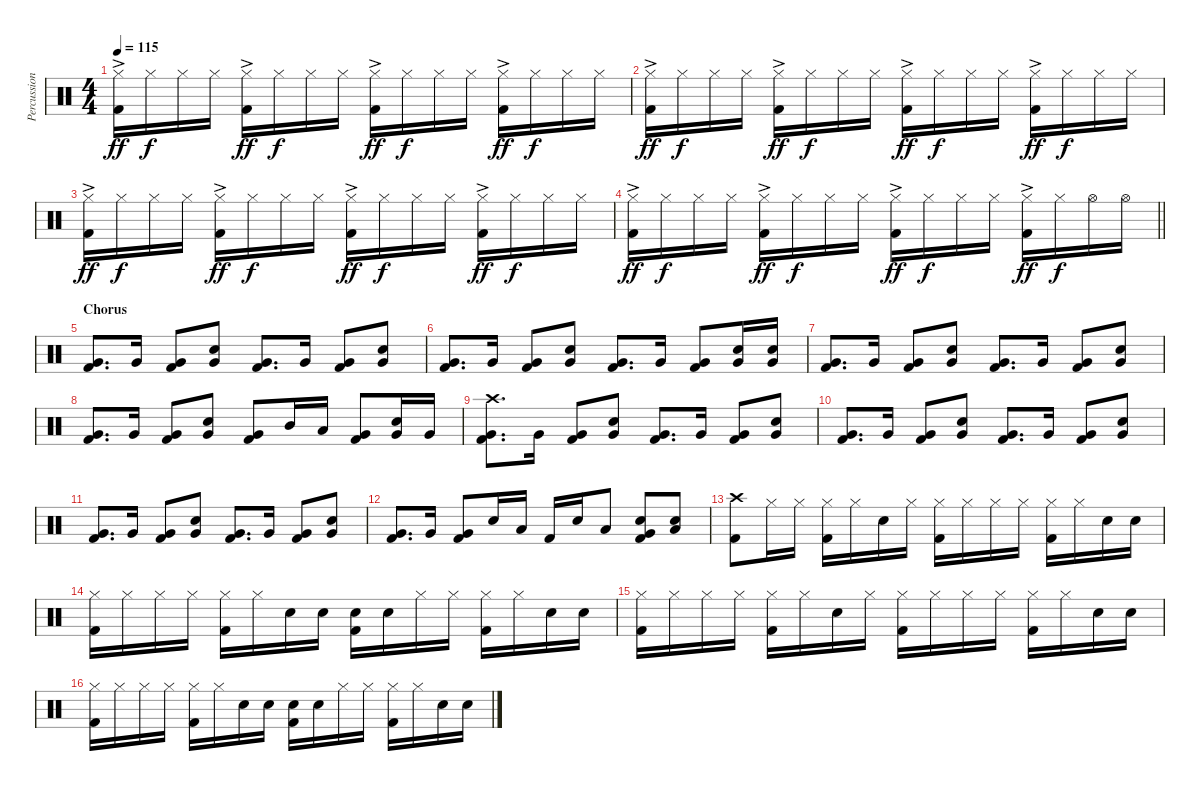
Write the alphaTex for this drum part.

\track ("Percussion" "Percussion") {instrument percussion}
\staff {score}
\articulation defaults
\ts (4 4)
\tempo 115
\clef neutral
\ks c
("Hi-Hat (closed)"{ac} "Kick (hit) 2").16{dy ff} "Hi-Hat (closed)".16{dy f} "Hi-Hat (closed)".16 "Hi-Hat (closed)".16 ("Hi-Hat (closed)"{ac} "Kick (hit) 2").16{dy ff} "Hi-Hat (closed)".16{dy f} "Hi-Hat (closed)".16 "Hi-Hat (closed)".16 ("Hi-Hat (closed)"{ac} "Kick (hit) 2").16{dy ff} "Hi-Hat (closed)".16{dy f} "Hi-Hat (closed)".16 "Hi-Hat (closed)".16 ("Hi-Hat (closed)"{ac} "Kick (hit) 2").16{dy ff} "Hi-Hat (closed)".16{dy f} "Hi-Hat (closed)".16 "Hi-Hat (closed)".16 |
("Hi-Hat (closed)"{ac} "Kick (hit) 2").16{dy ff} "Hi-Hat (closed)".16{dy f} "Hi-Hat (closed)".16 "Hi-Hat (closed)".16 ("Hi-Hat (closed)"{ac} "Kick (hit) 2").16{dy ff} "Hi-Hat (closed)".16{dy f} "Hi-Hat (closed)".16 "Hi-Hat (closed)".16 ("Hi-Hat (closed)"{ac} "Kick (hit) 2").16{dy ff} "Hi-Hat (closed)".16{dy f} "Hi-Hat (closed)".16 "Hi-Hat (closed)".16 ("Hi-Hat (closed)"{ac} "Kick (hit) 2").16{dy ff} "Hi-Hat (closed)".16{dy f} "Hi-Hat (closed)".16 "Hi-Hat (closed)".16 |
("Hi-Hat (closed)"{ac} "Kick (hit) 2").16{dy ff} "Hi-Hat (closed)".16{dy f} "Hi-Hat (closed)".16 "Hi-Hat (closed)".16 ("Hi-Hat (closed)"{ac} "Kick (hit) 2").16{dy ff} "Hi-Hat (closed)".16{dy f} "Hi-Hat (closed)".16 "Hi-Hat (closed)".16 ("Hi-Hat (closed)"{ac} "Kick (hit) 2").16{dy ff} "Hi-Hat (closed)".16{dy f} "Hi-Hat (closed)".16 "Hi-Hat (closed)".16 ("Hi-Hat (closed)"{ac} "Kick (hit) 2").16{dy ff} "Hi-Hat (closed)".16{dy f} "Hi-Hat (closed)".16 "Hi-Hat (closed)".16 |
\barLineRight lightlight
("Hi-Hat (closed)"{ac} "Kick (hit) 2").16{dy ff} "Hi-Hat (closed)".16{dy f} "Hi-Hat (closed)".16 "Hi-Hat (closed)".16 ("Hi-Hat (closed)"{ac} "Kick (hit) 2").16{dy ff} "Hi-Hat (closed)".16{dy f} "Hi-Hat (closed)".16 "Hi-Hat (closed)".16 ("Hi-Hat (closed)"{ac} "Kick (hit) 2").16{dy ff} "Hi-Hat (closed)".16{dy f} "Hi-Hat (closed)".16 "Hi-Hat (closed)".16 ("Hi-Hat (closed)"{ac} "Kick (hit) 2").16{dy ff} "Hi-Hat (closed)".16{dy f} "Hi-Hat (open)".16 "Hi-Hat (open)".16 |
\section ("" "Chorus")
("Very Low Tom (hit)" "Kick (hit) 2").8{d} "Very Low Tom (hit)".16 ("Very Low Tom (hit)" "Kick (hit) 2").8 ("Very Low Tom (hit)" "Snare (hit) 2").8 ("Very Low Tom (hit)" "Kick (hit) 2").8{d} "Very Low Tom (hit)".16 ("Very Low Tom (hit)" "Kick (hit) 2").8 ("Very Low Tom (hit)" "Snare (hit) 2").8 |
("Very Low Tom (hit)" "Kick (hit) 2").8{d} "Very Low Tom (hit)".16 ("Very Low Tom (hit)" "Kick (hit) 2").8 ("Very Low Tom (hit)" "Snare (hit) 2").8 ("Very Low Tom (hit)" "Kick (hit) 2").8{d} "Very Low Tom (hit)".16 ("Very Low Tom (hit)" "Kick (hit) 2").8 ("Very Low Tom (hit)" "Snare (hit) 2").16 ("Very Low Tom (hit)" "Snare (hit) 2").16 |
("Very Low Tom (hit)" "Kick (hit) 2").8{d} "Very Low Tom (hit)".16 ("Very Low Tom (hit)" "Kick (hit) 2").8 ("Very Low Tom (hit)" "Snare (hit) 2").8 ("Very Low Tom (hit)" "Kick (hit) 2").8{d} "Very Low Tom (hit)".16 ("Very Low Tom (hit)" "Kick (hit) 2").8 ("Very Low Tom (hit)" "Snare (hit) 2").8 |
("Very Low Tom (hit)" "Kick (hit) 2").8{d} "Very Low Tom (hit)".16 ("Very Low Tom (hit)" "Kick (hit) 2").8 ("Very Low Tom (hit)" "Snare (hit) 2").8 ("Very Low Tom (hit)" "Kick (hit) 2").8 "Mid Tom (hit)".16 "Low Tom (hit)".16 ("Very Low Tom (hit)" "Kick (hit) 2").8 ("Very Low Tom (hit)" "Snare (hit) 2").16 "Very Low Tom (hit)".16 |
("Crash high (hit)" "Very Low Tom (hit)" "Kick (hit) 2").8{d} "Very Low Tom (hit)".16 ("Very Low Tom (hit)" "Kick (hit) 2").8 ("Very Low Tom (hit)" "Snare (hit) 2").8 ("Very Low Tom (hit)" "Kick (hit) 2").8{d} "Very Low Tom (hit)".16 ("Very Low Tom (hit)" "Kick (hit) 2").8 ("Very Low Tom (hit)" "Snare (hit) 2").8 |
("Very Low Tom (hit)" "Kick (hit) 2").8{d} "Very Low Tom (hit)".16 ("Very Low Tom (hit)" "Kick (hit) 2").8 ("Very Low Tom (hit)" "Snare (hit) 2").8 ("Very Low Tom (hit)" "Kick (hit) 2").8{d} "Very Low Tom (hit)".16 ("Very Low Tom (hit)" "Kick (hit) 2").8 ("Very Low Tom (hit)" "Snare (hit) 2").8 |
("Very Low Tom (hit)" "Kick (hit) 2").8{d} "Very Low Tom (hit)".16 ("Very Low Tom (hit)" "Kick (hit) 2").8 ("Very Low Tom (hit)" "Snare (hit) 2").8 ("Very Low Tom (hit)" "Kick (hit) 2").8{d} "Very Low Tom (hit)".16 ("Very Low Tom (hit)" "Kick (hit) 2").8 ("Very Low Tom (hit)" "Snare (hit) 2").8 |
("Very Low Tom (hit)" "Kick (hit) 2").8{d} "Very Low Tom (hit)".16 ("Very Low Tom (hit)" "Kick (hit) 2").8 "Snare (hit) 2".16 "Low Floor Tom (hit)".16 "Kick (hit) 2".16 "Snare (hit) 2".16 "Low Floor Tom (hit)".8 ("Very Low Tom (hit)" "Snare (hit) 2" "Kick (hit) 2").8 ("Low Floor Tom (hit)" "Snare (hit) 2").8 |
("Crash high (hit)" "Kick (hit) 2").8 "Hi-Hat (closed)".16 "Hi-Hat (closed)".16 ("Hi-Hat (closed)" "Kick (hit) 2").16 "Hi-Hat (closed)".16 "Snare (hit) 2".16 "Hi-Hat (closed)".16 ("Hi-Hat (closed)" "Kick (hit) 2").16 "Hi-Hat (closed)".16 "Hi-Hat (closed)".16 "Hi-Hat (closed)".16 ("Hi-Hat (closed)" "Kick (hit) 2").16 "Hi-Hat (closed)".16 "Snare (hit) 2".16 "Snare (hit) 2".16 |
("Hi-Hat (closed)" "Kick (hit) 2").16 "Hi-Hat (closed)".16 "Hi-Hat (closed)".16 "Hi-Hat (closed)".16 ("Hi-Hat (closed)" "Kick (hit) 2").16 "Hi-Hat (closed)".16 "Snare (hit) 2".16 "Snare (hit) 2".16 ("Snare (hit) 2" "Kick (hit) 2").16 "Snare (hit) 2".16 "Hi-Hat (closed)".16 "Hi-Hat (closed)".16 ("Hi-Hat (closed)" "Kick (hit) 2").16 "Hi-Hat (closed)".16 "Snare (hit) 2".16 "Snare (hit) 2".16 |
("Hi-Hat (closed)" "Kick (hit) 2").16 "Hi-Hat (closed)".16 "Hi-Hat (closed)".16 "Hi-Hat (closed)".16 ("Hi-Hat (closed)" "Kick (hit) 2").16 "Hi-Hat (closed)".16 "Snare (hit) 2".16 "Hi-Hat (closed)".16 ("Hi-Hat (closed)" "Kick (hit) 2").16 "Hi-Hat (closed)".16 "Hi-Hat (closed)".16 "Hi-Hat (closed)".16 ("Hi-Hat (closed)" "Kick (hit) 2").16 "Hi-Hat (closed)".16 "Snare (hit) 2".16 "Snare (hit) 2".16 |
("Hi-Hat (closed)" "Kick (hit) 2").16 "Hi-Hat (closed)".16 "Hi-Hat (closed)".16 "Hi-Hat (closed)".16 ("Hi-Hat (closed)" "Kick (hit) 2").16 "Hi-Hat (closed)".16 "Snare (hit) 2".16 "Snare (hit) 2".16 ("Snare (hit) 2" "Kick (hit) 2").16 "Snare (hit) 2".16 "Hi-Hat (closed)".16 "Hi-Hat (closed)".16 ("Hi-Hat (closed)" "Kick (hit) 2").16 "Hi-Hat (closed)".16 "Snare (hit) 2".16 "Snare (hit) 2".16
